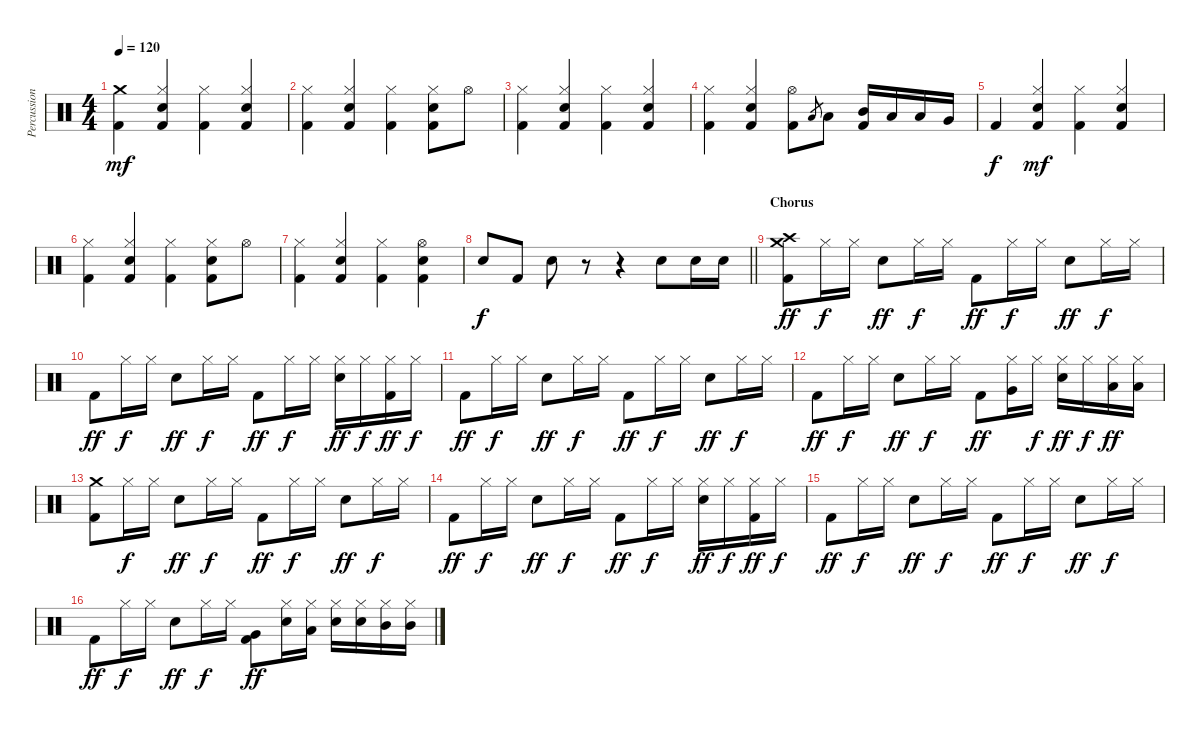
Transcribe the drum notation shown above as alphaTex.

\track ("Percussion" "Percussion") {instrument percussion}
\staff {score}
\articulation defaults
\ts (4 4)
\tempo 120
\clef neutral
\ks c
("Crash medium (hit)" "Kick (hit) 2").4{dy mf} ("Hi-Hat (closed)" "Hand Clap (hit)" "Kick (hit) 2").4 ("Hi-Hat (closed)" "Kick (hit) 2").4 ("Hi-Hat (closed)" "Hand Clap (hit)" "Kick (hit) 2").4 |
("Hi-Hat (closed)" "Kick (hit) 2").4 ("Hi-Hat (closed)" "Hand Clap (hit)" "Kick (hit) 2").4 ("Hi-Hat (closed)" "Kick (hit) 2").4 ("Hi-Hat (closed)" "Hand Clap (hit)" "Kick (hit) 2").8 "Hi-Hat (open)".8 |
("Hi-Hat (closed)" "Kick (hit) 2").4 ("Hi-Hat (closed)" "Hand Clap (hit)" "Kick (hit) 2").4 ("Hi-Hat (closed)" "Kick (hit) 2").4 ("Hi-Hat (closed)" "Hand Clap (hit)" "Kick (hit) 2").4 |
("Hi-Hat (closed)" "Kick (hit) 2").4 ("Hi-Hat (closed)" "Hand Clap (hit)" "Kick (hit) 2").4 ("Hi-Hat (open)" "Kick (hit) 2").8 "Low Tom (hit)".8{gr} "Low Tom (hit)".8 ("Mid Tom (hit)" "Kick (hit) 2").16 "Low Tom (hit)".16 "Low Tom (hit)".16 "Very Low Tom (hit)".16 |
"Kick (hit) 2".4{dy f} ("Hi-Hat (closed)" "Hand Clap (hit)" "Kick (hit) 2").4{dy mf} ("Hi-Hat (closed)" "Kick (hit) 2").4 ("Hi-Hat (closed)" "Hand Clap (hit)" "Kick (hit) 2").4 |
("Hi-Hat (closed)" "Kick (hit) 2").4 ("Hi-Hat (closed)" "Hand Clap (hit)" "Kick (hit) 2").4 ("Hi-Hat (closed)" "Kick (hit) 2").4 ("Hi-Hat (closed)" "Hand Clap (hit)" "Kick (hit) 2").8 "Hi-Hat (open)".8 |
("Hi-Hat (closed)" "Kick (hit) 2").4 ("Hi-Hat (closed)" "Hand Clap (hit)" "Kick (hit) 2").4 ("Hi-Hat (closed)" "Kick (hit) 2").4 ("Hi-Hat (open)" "Hand Clap (hit)" "Kick (hit) 2").4 |
\barLineRight lightlight "Electric Snare (hit)".8{dy f} "Kick (hit) 2".8 "Electric Snare (hit)".8
r.8 r.4 "Electric Snare (hit)".8 "Electric Snare (hit)".16 "Electric Snare (hit)".16 |
\section ("" "Chorus")
("Crash high (hit)" "Crash medium (hit)" "Kick (hit) 2").8{dy ff} "Hi-Hat (closed)".16{dy f} "Hi-Hat (closed)".16 "Electric Snare (hit)".8{dy ff} "Hi-Hat (closed)".16{dy f} "Hi-Hat (closed)".16 "Kick (hit) 2".8{dy ff} "Hi-Hat (closed)".16{dy f} "Hi-Hat (closed)".16 "Electric Snare (hit)".8{dy ff} "Hi-Hat (closed)".16{dy f} "Hi-Hat (closed)".16 |
"Kick (hit) 2".8{dy ff} "Hi-Hat (closed)".16{dy f} "Hi-Hat (closed)".16 "Electric Snare (hit)".8{dy ff} "Hi-Hat (closed)".16{dy f} "Hi-Hat (closed)".16 "Kick (hit) 2".8{dy ff} "Hi-Hat (closed)".16{dy f} "Hi-Hat (closed)".16 ("Hi-Hat (closed)" "Electric Snare (hit)").16{dy ff} "Hi-Hat (closed)".16{dy f} ("Hi-Hat (closed)" "Kick (hit) 2").16{dy ff} "Hi-Hat (closed)".16{dy f} |
"Kick (hit) 2".8{dy ff} "Hi-Hat (closed)".16{dy f} "Hi-Hat (closed)".16 "Electric Snare (hit)".8{dy ff} "Hi-Hat (closed)".16{dy f} "Hi-Hat (closed)".16 "Kick (hit) 2".8{dy ff} "Hi-Hat (closed)".16{dy f} "Hi-Hat (closed)".16 "Electric Snare (hit)".8{dy ff} "Hi-Hat (closed)".16{dy f} "Hi-Hat (closed)".16 |
"Kick (hit) 2".8{dy ff} "Hi-Hat (closed)".16{dy f} "Hi-Hat (closed)".16 "Electric Snare (hit)".8{dy ff} "Hi-Hat (closed)".16{dy f} "Hi-Hat (closed)".16 "Kick (hit) 2".8{dy ff} ("Hi-Hat (closed)" "Very Low Tom (hit)").16 "Hi-Hat (closed)".16{dy f} ("Hi-Hat (closed)" "Electric Snare (hit)").16{dy ff} "Hi-Hat (closed)".16{dy f} ("Hi-Hat (closed)" "Low Tom (hit)").16{dy ff} ("Hi-Hat (closed)" "Low Tom (hit)").16 |
("Crash medium (hit)" "Kick (hit) 2").8 "Hi-Hat (closed)".16{dy f} "Hi-Hat (closed)".16 "Electric Snare (hit)".8{dy ff} "Hi-Hat (closed)".16{dy f} "Hi-Hat (closed)".16 "Kick (hit) 2".8{dy ff} "Hi-Hat (closed)".16{dy f} "Hi-Hat (closed)".16 "Electric Snare (hit)".8{dy ff} "Hi-Hat (closed)".16{dy f} "Hi-Hat (closed)".16 |
"Kick (hit) 2".8{dy ff} "Hi-Hat (closed)".16{dy f} "Hi-Hat (closed)".16 "Electric Snare (hit)".8{dy ff} "Hi-Hat (closed)".16{dy f} "Hi-Hat (closed)".16 "Kick (hit) 2".8{dy ff} "Hi-Hat (closed)".16{dy f} "Hi-Hat (closed)".16 ("Hi-Hat (closed)" "Electric Snare (hit)").16{dy ff} "Hi-Hat (closed)".16{dy f} ("Hi-Hat (closed)" "Kick (hit) 2").16{dy ff} "Hi-Hat (closed)".16{dy f} |
"Kick (hit) 2".8{dy ff} "Hi-Hat (closed)".16{dy f} "Hi-Hat (closed)".16 "Electric Snare (hit)".8{dy ff} "Hi-Hat (closed)".16{dy f} "Hi-Hat (closed)".16 "Kick (hit) 2".8{dy ff} "Hi-Hat (closed)".16{dy f} "Hi-Hat (closed)".16 "Electric Snare (hit)".8{dy ff} "Hi-Hat (closed)".16{dy f} "Hi-Hat (closed)".16 |
"Kick (hit) 2".8{dy ff} "Hi-Hat (closed)".16{dy f} "Hi-Hat (closed)".16 "Electric Snare (hit)".8{dy ff} "Hi-Hat (closed)".16{dy f} "Hi-Hat (closed)".16 ("Very Low Tom (hit)" "Kick (hit) 2").8{dy ff} ("Hi-Hat (closed)" "Electric Snare (hit)").16 ("Hi-Hat (closed)" "Low Tom (hit)").16 ("Hi-Hat (closed)" "Electric Snare (hit)").16 ("Hi-Hat (closed)" "Electric Snare (hit)").16 ("Hi-Hat (closed)" "Mid Tom (hit)").16 ("Hi-Hat (closed)" "Mid Tom (hit)").16
